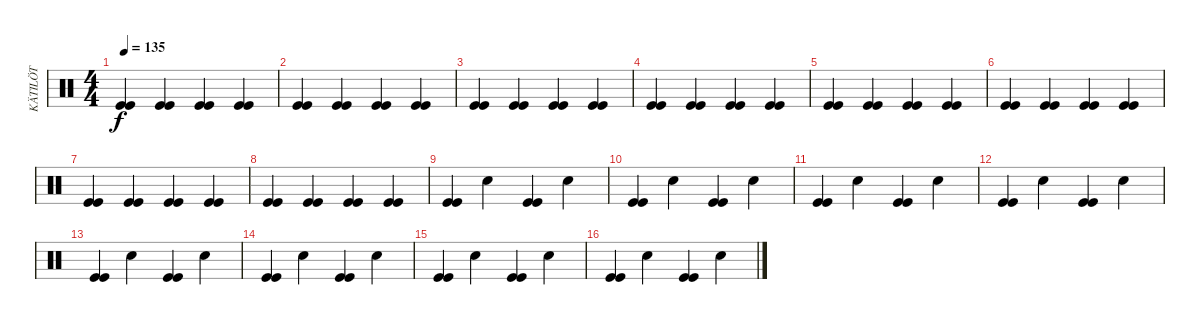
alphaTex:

\track ("KÄTILÖT" "KÄTILÖT") {instrument percussion}
\staff {score}
\articulation defaults
\ts (4 4)
\tempo 135
\clef neutral
\ks c
("Kick (hit)" "Kick (hit)").4{dy f} ("Kick (hit)" "Kick (hit)").4 ("Kick (hit)" "Kick (hit)").4 ("Kick (hit)" "Kick (hit)").4 |
("Kick (hit)" "Kick (hit)").4 ("Kick (hit)" "Kick (hit)").4 ("Kick (hit)" "Kick (hit)").4 ("Kick (hit)" "Kick (hit)").4 |
("Kick (hit)" "Kick (hit)").4 ("Kick (hit)" "Kick (hit)").4 ("Kick (hit)" "Kick (hit)").4 ("Kick (hit)" "Kick (hit)").4 |
("Kick (hit)" "Kick (hit)").4 ("Kick (hit)" "Kick (hit)").4 ("Kick (hit)" "Kick (hit)").4 ("Kick (hit)" "Kick (hit)").4 |
("Kick (hit)" "Kick (hit)").4 ("Kick (hit)" "Kick (hit)").4 ("Kick (hit)" "Kick (hit)").4 ("Kick (hit)" "Kick (hit)").4 |
("Kick (hit)" "Kick (hit)").4 ("Kick (hit)" "Kick (hit)").4 ("Kick (hit)" "Kick (hit)").4 ("Kick (hit)" "Kick (hit)").4 |
("Kick (hit)" "Kick (hit)").4 ("Kick (hit)" "Kick (hit)").4 ("Kick (hit)" "Kick (hit)").4 ("Kick (hit)" "Kick (hit)").4 |
("Kick (hit)" "Kick (hit)").4 ("Kick (hit)" "Kick (hit)").4 ("Kick (hit)" "Kick (hit)").4 ("Kick (hit)" "Kick (hit)").4 |
("Kick (hit)" "Kick (hit)").4 "Electric Snare (hit)".4 ("Kick (hit)" "Kick (hit)").4 "Electric Snare (hit)".4 |
("Kick (hit)" "Kick (hit)").4 "Electric Snare (hit)".4 ("Kick (hit)" "Kick (hit)").4 "Electric Snare (hit)".4 |
("Kick (hit)" "Kick (hit)").4 "Electric Snare (hit)".4 ("Kick (hit)" "Kick (hit)").4 "Electric Snare (hit)".4 |
("Kick (hit)" "Kick (hit)").4 "Electric Snare (hit)".4 ("Kick (hit)" "Kick (hit)").4 "Electric Snare (hit)".4 |
("Kick (hit)" "Kick (hit)").4 "Electric Snare (hit)".4 ("Kick (hit)" "Kick (hit)").4 "Electric Snare (hit)".4 |
("Kick (hit)" "Kick (hit)").4 "Electric Snare (hit)".4 ("Kick (hit)" "Kick (hit)").4 "Electric Snare (hit)".4 |
("Kick (hit)" "Kick (hit)").4 "Electric Snare (hit)".4 ("Kick (hit)" "Kick (hit)").4 "Electric Snare (hit)".4 |
("Kick (hit)" "Kick (hit)").4 "Electric Snare (hit)".4 ("Kick (hit)" "Kick (hit)").4 "Electric Snare (hit)".4
